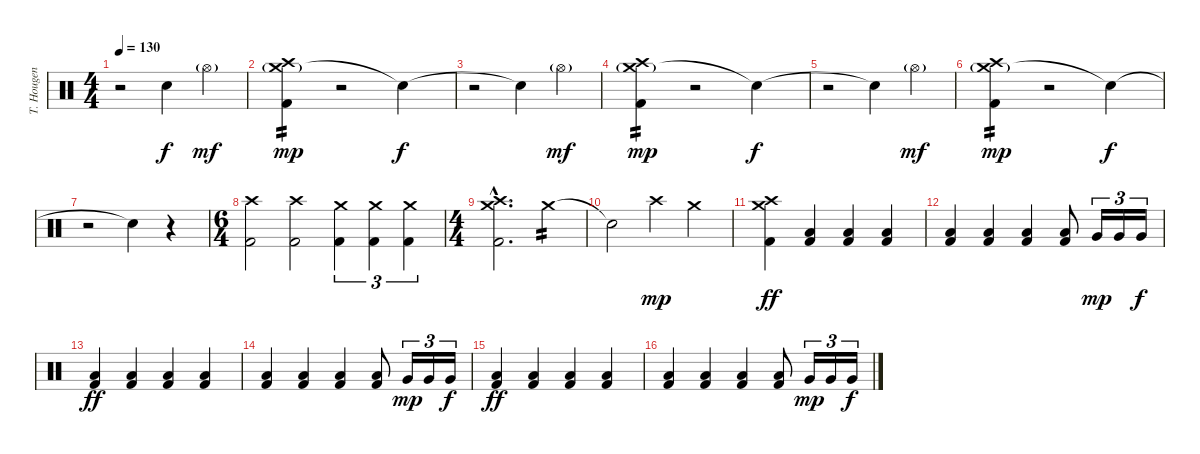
\track ("T. Hougen - Drums" "T. Hougen ") {instrument percussion}
\staff {score}
\articulation defaults
\ts (4 4)
\tempo 130
\clef neutral
\ks c
r.2{dy f} "Snare (hit)"{t}.4 "Hi-Hat (open)"{g}.4{dy mf} |
("Crash medium (hit)"{g} "Crash high (hit)" "Kick (hit) 2").4{tp 2 dy mp} r.2 "Snare (hit)"{t}.4{dy f} |
r.2 "Snare (hit)"{t}.4 "Hi-Hat (open)"{g}.4{dy mf} |
("Crash medium (hit)"{g} "Crash high (hit)" "Kick (hit) 2").4{tp 2 dy mp} r.2 "Snare (hit)"{t}.4{dy f} |
r.2 "Snare (hit)"{t}.4 "Hi-Hat (open)"{g}.4{dy mf} |
("Crash medium (hit)"{g} "Crash high (hit)" "Kick (hit) 2").4{tp 2 dy mp} r.2 "Snare (hit)"{t}.4{dy f} |
r.2 "Snare (hit)"{t}.4 r.4 |
\ts (6 4)
("Crash high (hit)" "Kick (hit) 2").2 ("Crash high (hit)" "Kick (hit) 2").2 ("Crash medium (hit)" "Kick (hit) 2").4{tu (3 2)} ("Crash medium (hit)" "Kick (hit) 2").4{tu (3 2)} ("Crash medium (hit)" "Kick (hit) 2").4{tu (3 2)} |
\ts (4 4)
("Crash medium (hit)"{hac} "Crash high (hit)"{hac} "Kick (hit) 2"{hac}).2{d} "Crash medium (hit)".4{tp 2} |
"Snare (hit)"{t}.2 "Crash high (hit)".4{dy mp} "Crash medium (hit)".4 |
("Crash medium (hit)" "Crash high (hit)" "Kick (hit) 2").4{dy ff} ("Low Floor Tom (hit)" "Kick (hit) 2").4 ("Low Floor Tom (hit)" "Kick (hit) 2").4 ("Low Floor Tom (hit)" "Kick (hit) 2").4 |
("Low Floor Tom (hit)" "Kick (hit) 2").4 ("Low Floor Tom (hit)" "Kick (hit) 2").4 ("Low Floor Tom (hit)" "Kick (hit) 2").4 ("Low Floor Tom (hit)" "Kick (hit) 2").8 "Very Low Tom (hit)".16{tu (3 2) dy mp} "Very Low Tom (hit)".16{tu (3 2)} "Very Low Tom (hit)".16{tu (3 2) dy f} |
("Low Floor Tom (hit)" "Kick (hit) 2").4{dy ff} ("Low Floor Tom (hit)" "Kick (hit) 2").4 ("Low Floor Tom (hit)" "Kick (hit) 2").4 ("Low Floor Tom (hit)" "Kick (hit) 2").4 |
("Low Floor Tom (hit)" "Kick (hit) 2").4 ("Low Floor Tom (hit)" "Kick (hit) 2").4 ("Low Floor Tom (hit)" "Kick (hit) 2").4 ("Low Floor Tom (hit)" "Kick (hit) 2").8 "Very Low Tom (hit)".16{tu (3 2) dy mp} "Very Low Tom (hit)".16{tu (3 2)} "Very Low Tom (hit)".16{tu (3 2) dy f} |
("Low Floor Tom (hit)" "Kick (hit) 2").4{dy ff} ("Low Floor Tom (hit)" "Kick (hit) 2").4 ("Low Floor Tom (hit)" "Kick (hit) 2").4 ("Low Floor Tom (hit)" "Kick (hit) 2").4 |
("Low Floor Tom (hit)" "Kick (hit) 2").4 ("Low Floor Tom (hit)" "Kick (hit) 2").4 ("Low Floor Tom (hit)" "Kick (hit) 2").4 ("Low Floor Tom (hit)" "Kick (hit) 2").8 "Very Low Tom (hit)".16{tu (3 2) dy mp} "Very Low Tom (hit)".16{tu (3 2)} "Very Low Tom (hit)".16{tu (3 2) dy f}
